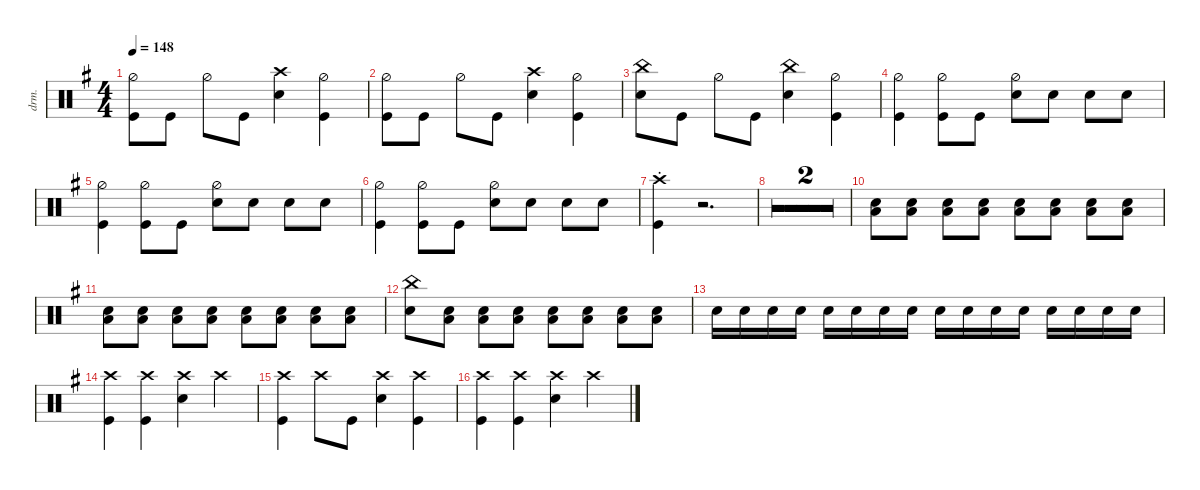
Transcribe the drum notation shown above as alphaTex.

\defaultSystemsLayout 4
\hideDynamics
\bracketExtendMode nobrackets
\otherSystemsTrackNameOrientation horizontal
\track ("Drums" "drm.") {multiBarRest instrument percussion}
\staff
\articulation defaults
\ts (4 4)
\tempo 148
\clef neutral
\ks eminor
("Kick (hit)"{acc forcenatural} "Hi-Hat (half)"{acc forcenatural}).8{dy mf beam Down} "Kick (hit)"{acc forcenatural}.8{beam Down} "Hi-Hat (half)"{acc forcenatural}.8{beam Down} "Kick (hit)"{acc forcenatural}.8{beam Down} ("Snare (hit) 2"{acc forcenatural} "Crash high (hit)"{acc forcenatural}).4{beam Down} ("Hi-Hat (half)"{acc forcenatural} "Kick (hit)"{acc forcenatural}).4{beam Down} |
("Kick (hit)"{acc forcenatural} "Hi-Hat (half)"{acc forcenatural}).8{beam Down} "Kick (hit)"{acc forcenatural}.8{beam Down} "Hi-Hat (half)"{acc forcenatural}.8{beam Down} "Kick (hit)"{acc forcenatural}.8{beam Down} ("Snare (hit) 2"{acc forcenatural} "Crash high (hit)"{acc forcenatural}).4{beam Down} ("Hi-Hat (half)"{acc forcenatural} "Kick (hit)"{acc forcenatural}).4{beam Down} |
("Snare (hit) 2"{acc forcenatural} "China (hit)"{acc forcenatural}).8{beam Down} "Kick (hit)"{acc forcenatural}.8{beam Down} "Hi-Hat (half)"{acc forcenatural}.8{beam Down} "Kick (hit)"{acc forcenatural}.8{beam Down} ("Snare (hit) 2"{acc forcenatural} "China (hit)"{acc forcenatural}).4{beam Down} ("Kick (hit)"{acc forcenatural} "Hi-Hat (half)"{acc forcenatural}).4{beam Down} |
("Kick (hit)"{acc forcenatural} "Hi-Hat (half)"{acc forcenatural}).4{beam Down} ("Kick (hit)"{acc forcenatural} "Hi-Hat (half)"{acc forcenatural}).8{beam Down} "Kick (hit)"{acc forcenatural}.8{beam Down} ("Hi-Hat (half)"{acc forcenatural} "Snare (hit) 2"{acc forcenatural}).8{beam Down} "Snare (hit) 2"{acc forcenatural}.8{beam Down} "Snare (hit) 2"{acc forcenatural}.8{beam Down} "Snare (hit) 2"{acc forcenatural}.8{beam Down} |
("Kick (hit)"{acc forcenatural} "Hi-Hat (half)"{acc forcenatural}).4{beam Down} ("Kick (hit)"{acc forcenatural} "Hi-Hat (half)"{acc forcenatural}).8{beam Down} "Kick (hit)"{acc forcenatural}.8{beam Down} ("Hi-Hat (half)"{acc forcenatural} "Snare (hit) 2"{acc forcenatural}).8{beam Down} "Snare (hit) 2"{acc forcenatural}.8{beam Down} "Snare (hit) 2"{acc forcenatural}.8{beam Down} "Snare (hit) 2"{acc forcenatural}.8{beam Down} |
("Kick (hit)"{acc forcenatural} "Hi-Hat (half)"{acc forcenatural}).4{beam Down} ("Kick (hit)"{acc forcenatural} "Hi-Hat (half)"{acc forcenatural}).8{beam Down} "Kick (hit)"{acc forcenatural}.8{beam Down} ("Hi-Hat (half)"{acc forcenatural} "Snare (hit) 2"{acc forcenatural}).8{beam Down} "Snare (hit) 2"{acc forcenatural}.8{beam Down} "Snare (hit) 2"{acc forcenatural}.8{beam Down} "Snare (hit) 2"{acc forcenatural}.8{beam Down} |
("Kick (hit)"{acc forcenatural} "Crash high (hit)"{st acc forcenatural}).4{beam Down} r.2{d beam Down} |
r.1{beam Down} |
r.1{beam Down} |
("Snare (hit) 2"{acc forcenatural} "Low Tom (hit)"{acc forcenatural}).8{beam Down} ("Snare (hit) 2"{acc forcenatural} "Low Tom (hit)"{acc forcenatural}).8{beam Down} ("Snare (hit) 2"{acc forcenatural} "Low Tom (hit)"{acc forcenatural}).8{beam Down} ("Snare (hit) 2"{acc forcenatural} "Low Tom (hit)"{acc forcenatural}).8{beam Down} ("Snare (hit) 2"{acc forcenatural} "Low Tom (hit)"{acc forcenatural}).8{beam Down} ("Snare (hit) 2"{acc forcenatural} "Low Tom (hit)"{acc forcenatural}).8{beam Down} ("Snare (hit) 2"{acc forcenatural} "Low Tom (hit)"{acc forcenatural}).8{beam Down} ("Snare (hit) 2"{acc forcenatural} "Low Tom (hit)"{acc forcenatural}).8{beam Down} |
("Snare (hit) 2"{acc forcenatural} "Low Tom (hit)"{acc forcenatural}).8{beam Down} ("Snare (hit) 2"{acc forcenatural} "Low Tom (hit)"{acc forcenatural}).8{beam Down} ("Snare (hit) 2"{acc forcenatural} "Low Tom (hit)"{acc forcenatural}).8{beam Down} ("Snare (hit) 2"{acc forcenatural} "Low Tom (hit)"{acc forcenatural}).8{beam Down} ("Snare (hit) 2"{acc forcenatural} "Low Tom (hit)"{acc forcenatural}).8{beam Down} ("Snare (hit) 2"{acc forcenatural} "Low Tom (hit)"{acc forcenatural}).8{beam Down} ("Snare (hit) 2"{acc forcenatural} "Low Tom (hit)"{acc forcenatural}).8{beam Down} ("Snare (hit) 2"{acc forcenatural} "Low Tom (hit)"{acc forcenatural}).8{beam Down} |
("Snare (hit) 2"{acc forcenatural} "China (hit)"{acc forcenatural}).8{beam Down} ("Snare (hit) 2"{acc forcenatural} "Low Tom (hit)"{acc forcenatural}).8{beam Down} ("Snare (hit) 2"{acc forcenatural} "Low Tom (hit)"{acc forcenatural}).8{beam Down} ("Snare (hit) 2"{acc forcenatural} "Low Tom (hit)"{acc forcenatural}).8{beam Down} ("Snare (hit) 2"{acc forcenatural} "Low Tom (hit)"{acc forcenatural}).8{beam Down} ("Snare (hit) 2"{acc forcenatural} "Low Tom (hit)"{acc forcenatural}).8{beam Down} ("Snare (hit) 2"{acc forcenatural} "Low Tom (hit)"{acc forcenatural}).8{beam Down} ("Snare (hit) 2"{acc forcenatural} "Low Tom (hit)"{acc forcenatural}).8{beam Down} |
"Snare (hit) 2"{acc forcenatural}.16{beam Down} "Snare (hit) 2"{acc forcenatural}.16{beam Down} "Snare (hit) 2"{acc forcenatural}.16{beam Down} "Snare (hit) 2"{acc forcenatural}.16{beam Down} "Snare (hit) 2"{acc forcenatural}.16{beam Down} "Snare (hit) 2"{acc forcenatural}.16{beam Down} "Snare (hit) 2"{acc forcenatural}.16{beam Down} "Snare (hit) 2"{acc forcenatural}.16{beam Down} "Snare (hit) 2"{acc forcenatural}.16{beam Down} "Snare (hit) 2"{acc forcenatural}.16{beam Down} "Snare (hit) 2"{acc forcenatural}.16{beam Down} "Snare (hit) 2"{acc forcenatural}.16{beam Down} "Snare (hit) 2"{acc forcenatural}.16{beam Down} "Snare (hit) 2"{acc forcenatural}.16{beam Down} "Snare (hit) 2"{acc forcenatural}.16{beam Down} "Snare (hit) 2"{acc forcenatural}.16{beam Down} |
("Crash high (hit)"{acc forcenatural} "Kick (hit)"{acc forcenatural}).4{beam Down} ("Crash high (hit)"{acc forcenatural} "Kick (hit)"{acc forcenatural}).4{beam Down} ("Snare (hit) 2"{acc forcenatural} "Crash high (hit)"{acc forcenatural}).4{beam Down} "Crash high (hit)"{acc forcenatural}.4{beam Down} |
("Crash high (hit)"{acc forcenatural} "Kick (hit)"{acc forcenatural}).4{beam Down} "Crash high (hit)"{acc forcenatural}.8{beam Down} "Kick (hit)"{acc forcenatural}.8{beam Down} ("Crash high (hit)"{acc forcenatural} "Snare (hit) 2"{acc forcenatural}).4{beam Down} ("Crash high (hit)"{acc forcenatural} "Kick (hit)"{acc forcenatural}).4{beam Down} |
("Crash high (hit)"{acc forcenatural} "Kick (hit)"{acc forcenatural}).4{beam Down} ("Crash high (hit)"{acc forcenatural} "Kick (hit)"{acc forcenatural}).4{beam Down} ("Snare (hit) 2"{acc forcenatural} "Crash high (hit)"{acc forcenatural}).4{beam Down} "Crash high (hit)"{acc forcenatural}.4{beam Down}
